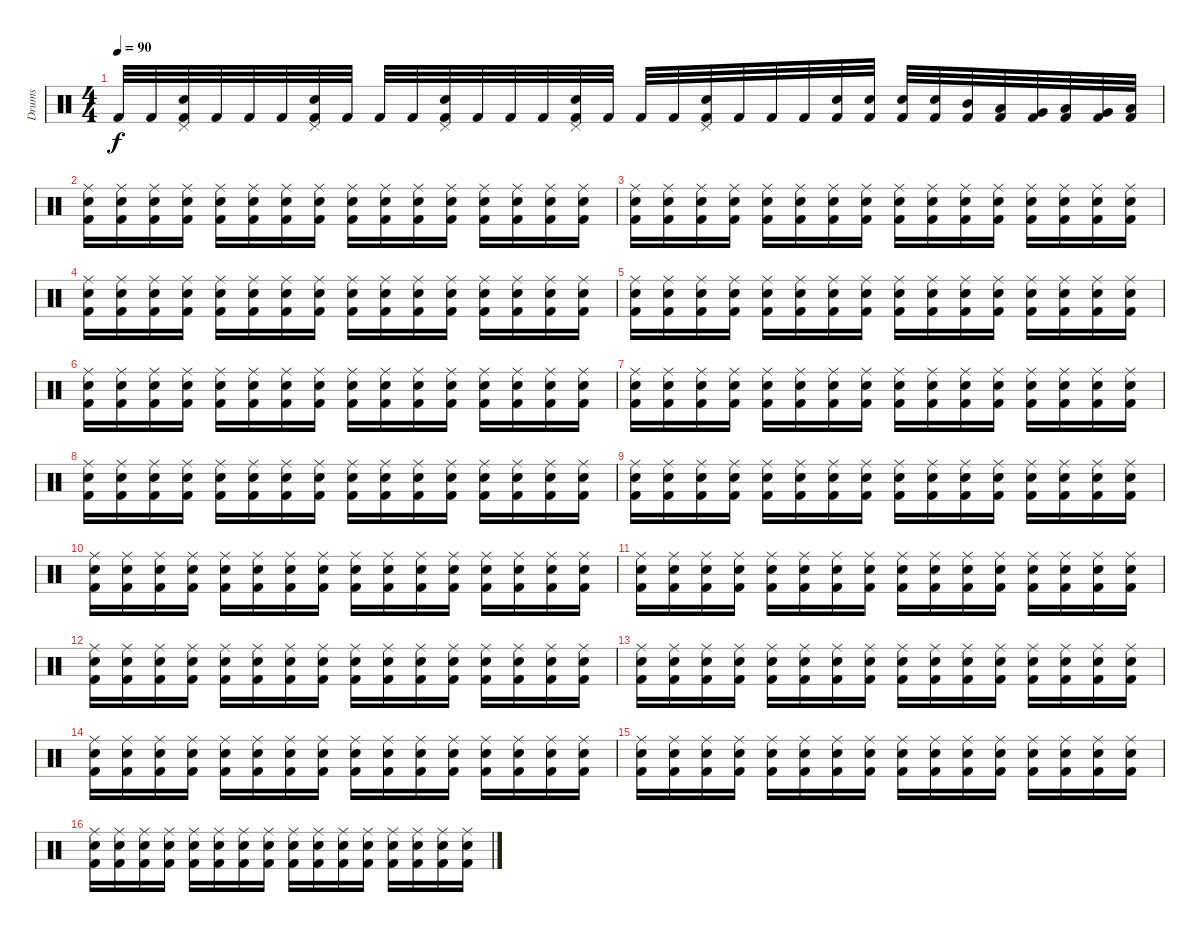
\track ("Drums" "Drums") {instrument percussion}
\staff {score}
\articulation defaults
\ts (4 4)
\tempo 90
\clef neutral
\ks c "Kick (hit) 2".32{dy f} "Kick (hit) 2".32
("Pedal Hi-Hat (hit)" "Snare (hit) 2" "Kick (hit) 2").32 "Kick (hit) 2".32 "Kick (hit) 2".32 "Kick (hit) 2".32 ("Pedal Hi-Hat (hit)" "Snare (hit) 2" "Kick (hit) 2").32 "Kick (hit) 2".32 "Kick (hit) 2".32 "Kick (hit) 2".32 ("Pedal Hi-Hat (hit)" "Snare (hit) 2" "Kick (hit) 2").32 "Kick (hit) 2".32 "Kick (hit) 2".32 "Kick (hit) 2".32 ("Pedal Hi-Hat (hit)" "Snare (hit) 2" "Kick (hit) 2").32 "Kick (hit) 2".32 "Kick (hit) 2".32 "Kick (hit) 2".32 ("Pedal Hi-Hat (hit)" "Snare (hit) 2" "Kick (hit) 2").32 "Kick (hit) 2".32 "Kick (hit) 2".32 "Kick (hit) 2".32 ("Snare (hit) 2" "Kick (hit) 2").32 ("Snare (hit) 2" "Kick (hit) 2").32 ("Snare (hit) 2" "Kick (hit) 2").32 ("Snare (hit) 2" "Kick (hit) 2").32 ("Mid Tom (hit)" "Kick (hit) 2").32 ("Low Tom (hit)" "Kick (hit) 2").32 ("Very Low Tom (hit)" "Kick (hit) 2").32 ("Low Tom (hit)" "Kick (hit) 2").32 ("Very Low Tom (hit)" "Kick (hit) 2").32 ("Low Floor Tom (hit)" "Kick (hit) 2").32 |
("Ride (middle)" "Snare (hit) 2" "Kick (hit) 2").16 ("Ride (middle)" "Snare (hit) 2" "Kick (hit) 2").16 ("Ride (middle)" "Snare (hit) 2" "Kick (hit) 2").16 ("Ride (middle)" "Snare (hit) 2" "Kick (hit) 2").16 ("Ride (middle)" "Snare (hit) 2" "Kick (hit) 2").16 ("Ride (middle)" "Snare (hit) 2" "Kick (hit) 2").16 ("Ride (middle)" "Snare (hit) 2" "Kick (hit) 2").16 ("Ride (middle)" "Snare (hit) 2" "Kick (hit) 2").16 ("Ride (middle)" "Snare (hit) 2" "Kick (hit) 2").16 ("Ride (middle)" "Snare (hit) 2" "Kick (hit) 2").16 ("Ride (middle)" "Snare (hit) 2" "Kick (hit) 2").16 ("Ride (middle)" "Snare (hit) 2" "Kick (hit) 2").16 ("Ride (middle)" "Snare (hit) 2" "Kick (hit) 2").16 ("Ride (middle)" "Snare (hit) 2" "Kick (hit) 2").16 ("Ride (middle)" "Snare (hit) 2" "Kick (hit) 2").16 ("Ride (middle)" "Snare (hit) 2" "Kick (hit) 2").16 |
("Ride (middle)" "Snare (hit) 2" "Kick (hit) 2").16 ("Ride (middle)" "Snare (hit) 2" "Kick (hit) 2").16 ("Ride (middle)" "Snare (hit) 2" "Kick (hit) 2").16 ("Ride (middle)" "Snare (hit) 2" "Kick (hit) 2").16 ("Ride (middle)" "Snare (hit) 2" "Kick (hit) 2").16 ("Ride (middle)" "Snare (hit) 2" "Kick (hit) 2").16 ("Ride (middle)" "Snare (hit) 2" "Kick (hit) 2").16 ("Ride (middle)" "Snare (hit) 2" "Kick (hit) 2").16 ("Ride (middle)" "Snare (hit) 2" "Kick (hit) 2").16 ("Ride (middle)" "Snare (hit) 2" "Kick (hit) 2").16 ("Ride (middle)" "Snare (hit) 2" "Kick (hit) 2").16 ("Ride (middle)" "Snare (hit) 2" "Kick (hit) 2").16 ("Ride (middle)" "Snare (hit) 2" "Kick (hit) 2").16 ("Ride (middle)" "Snare (hit) 2" "Kick (hit) 2").16 ("Ride (middle)" "Snare (hit) 2" "Kick (hit) 2").16 ("Ride (middle)" "Snare (hit) 2" "Kick (hit) 2").16 |
("Ride (middle)" "Snare (hit) 2" "Kick (hit) 2").16 ("Ride (middle)" "Snare (hit) 2" "Kick (hit) 2").16 ("Ride (middle)" "Snare (hit) 2" "Kick (hit) 2").16 ("Ride (middle)" "Snare (hit) 2" "Kick (hit) 2").16 ("Ride (middle)" "Snare (hit) 2" "Kick (hit) 2").16 ("Ride (middle)" "Snare (hit) 2" "Kick (hit) 2").16 ("Ride (middle)" "Snare (hit) 2" "Kick (hit) 2").16 ("Ride (middle)" "Snare (hit) 2" "Kick (hit) 2").16 ("Ride (middle)" "Snare (hit) 2" "Kick (hit) 2").16 ("Ride (middle)" "Snare (hit) 2" "Kick (hit) 2").16 ("Ride (middle)" "Snare (hit) 2" "Kick (hit) 2").16 ("Ride (middle)" "Snare (hit) 2" "Kick (hit) 2").16 ("Ride (middle)" "Snare (hit) 2" "Kick (hit) 2").16 ("Ride (middle)" "Snare (hit) 2" "Kick (hit) 2").16 ("Ride (middle)" "Snare (hit) 2" "Kick (hit) 2").16 ("Ride (middle)" "Snare (hit) 2" "Kick (hit) 2").16 |
("Ride (middle)" "Snare (hit) 2" "Kick (hit) 2").16 ("Ride (middle)" "Snare (hit) 2" "Kick (hit) 2").16 ("Ride (middle)" "Snare (hit) 2" "Kick (hit) 2").16 ("Ride (middle)" "Snare (hit) 2" "Kick (hit) 2").16 ("Ride (middle)" "Snare (hit) 2" "Kick (hit) 2").16 ("Ride (middle)" "Snare (hit) 2" "Kick (hit) 2").16 ("Ride (middle)" "Snare (hit) 2" "Kick (hit) 2").16 ("Ride (middle)" "Snare (hit) 2" "Kick (hit) 2").16 ("Ride (middle)" "Snare (hit) 2" "Kick (hit) 2").16 ("Ride (middle)" "Snare (hit) 2" "Kick (hit) 2").16 ("Ride (middle)" "Snare (hit) 2" "Kick (hit) 2").16 ("Ride (middle)" "Snare (hit) 2" "Kick (hit) 2").16 ("Ride (middle)" "Snare (hit) 2" "Kick (hit) 2").16 ("Ride (middle)" "Snare (hit) 2" "Kick (hit) 2").16 ("Ride (middle)" "Snare (hit) 2" "Kick (hit) 2").16 ("Ride (middle)" "Snare (hit) 2" "Kick (hit) 2").16 |
("Ride (middle)" "Snare (hit) 2" "Kick (hit) 2").16 ("Ride (middle)" "Snare (hit) 2" "Kick (hit) 2").16 ("Ride (middle)" "Snare (hit) 2" "Kick (hit) 2").16 ("Ride (middle)" "Snare (hit) 2" "Kick (hit) 2").16 ("Ride (middle)" "Snare (hit) 2" "Kick (hit) 2").16 ("Ride (middle)" "Snare (hit) 2" "Kick (hit) 2").16 ("Ride (middle)" "Snare (hit) 2" "Kick (hit) 2").16 ("Ride (middle)" "Snare (hit) 2" "Kick (hit) 2").16 ("Ride (middle)" "Snare (hit) 2" "Kick (hit) 2").16 ("Ride (middle)" "Snare (hit) 2" "Kick (hit) 2").16 ("Ride (middle)" "Snare (hit) 2" "Kick (hit) 2").16 ("Ride (middle)" "Snare (hit) 2" "Kick (hit) 2").16 ("Ride (middle)" "Snare (hit) 2" "Kick (hit) 2").16 ("Ride (middle)" "Snare (hit) 2" "Kick (hit) 2").16 ("Ride (middle)" "Snare (hit) 2" "Kick (hit) 2").16 ("Ride (middle)" "Snare (hit) 2" "Kick (hit) 2").16 |
("Ride (middle)" "Snare (hit) 2" "Kick (hit) 2").16 ("Ride (middle)" "Snare (hit) 2" "Kick (hit) 2").16 ("Ride (middle)" "Snare (hit) 2" "Kick (hit) 2").16 ("Ride (middle)" "Snare (hit) 2" "Kick (hit) 2").16 ("Ride (middle)" "Snare (hit) 2" "Kick (hit) 2").16 ("Ride (middle)" "Snare (hit) 2" "Kick (hit) 2").16 ("Ride (middle)" "Snare (hit) 2" "Kick (hit) 2").16 ("Ride (middle)" "Snare (hit) 2" "Kick (hit) 2").16 ("Ride (middle)" "Snare (hit) 2" "Kick (hit) 2").16 ("Ride (middle)" "Snare (hit) 2" "Kick (hit) 2").16 ("Ride (middle)" "Snare (hit) 2" "Kick (hit) 2").16 ("Ride (middle)" "Snare (hit) 2" "Kick (hit) 2").16 ("Ride (middle)" "Snare (hit) 2" "Kick (hit) 2").16 ("Ride (middle)" "Snare (hit) 2" "Kick (hit) 2").16 ("Ride (middle)" "Snare (hit) 2" "Kick (hit) 2").16 ("Ride (middle)" "Snare (hit) 2" "Kick (hit) 2").16 |
("Ride (middle)" "Snare (hit) 2" "Kick (hit) 2").16 ("Ride (middle)" "Snare (hit) 2" "Kick (hit) 2").16 ("Ride (middle)" "Snare (hit) 2" "Kick (hit) 2").16 ("Ride (middle)" "Snare (hit) 2" "Kick (hit) 2").16 ("Ride (middle)" "Snare (hit) 2" "Kick (hit) 2").16 ("Ride (middle)" "Snare (hit) 2" "Kick (hit) 2").16 ("Ride (middle)" "Snare (hit) 2" "Kick (hit) 2").16 ("Ride (middle)" "Snare (hit) 2" "Kick (hit) 2").16 ("Ride (middle)" "Snare (hit) 2" "Kick (hit) 2").16 ("Ride (middle)" "Snare (hit) 2" "Kick (hit) 2").16 ("Ride (middle)" "Snare (hit) 2" "Kick (hit) 2").16 ("Ride (middle)" "Snare (hit) 2" "Kick (hit) 2").16 ("Ride (middle)" "Snare (hit) 2" "Kick (hit) 2").16 ("Ride (middle)" "Snare (hit) 2" "Kick (hit) 2").16 ("Ride (middle)" "Snare (hit) 2" "Kick (hit) 2").16 ("Ride (middle)" "Snare (hit) 2" "Kick (hit) 2").16 |
("Ride (middle)" "Snare (hit) 2" "Kick (hit) 2").16 ("Ride (middle)" "Snare (hit) 2" "Kick (hit) 2").16 ("Ride (middle)" "Snare (hit) 2" "Kick (hit) 2").16 ("Ride (middle)" "Snare (hit) 2" "Kick (hit) 2").16 ("Ride (middle)" "Snare (hit) 2" "Kick (hit) 2").16 ("Ride (middle)" "Snare (hit) 2" "Kick (hit) 2").16 ("Ride (middle)" "Snare (hit) 2" "Kick (hit) 2").16 ("Ride (middle)" "Snare (hit) 2" "Kick (hit) 2").16 ("Ride (middle)" "Snare (hit) 2" "Kick (hit) 2").16 ("Ride (middle)" "Snare (hit) 2" "Kick (hit) 2").16 ("Ride (middle)" "Snare (hit) 2" "Kick (hit) 2").16 ("Ride (middle)" "Snare (hit) 2" "Kick (hit) 2").16 ("Ride (middle)" "Snare (hit) 2" "Kick (hit) 2").16 ("Ride (middle)" "Snare (hit) 2" "Kick (hit) 2").16 ("Ride (middle)" "Snare (hit) 2" "Kick (hit) 2").16 ("Ride (middle)" "Snare (hit) 2" "Kick (hit) 2").16 |
("Ride (middle)" "Snare (hit) 2" "Kick (hit) 2").16 ("Ride (middle)" "Snare (hit) 2" "Kick (hit) 2").16 ("Ride (middle)" "Snare (hit) 2" "Kick (hit) 2").16 ("Ride (middle)" "Snare (hit) 2" "Kick (hit) 2").16 ("Ride (middle)" "Snare (hit) 2" "Kick (hit) 2").16 ("Ride (middle)" "Snare (hit) 2" "Kick (hit) 2").16 ("Ride (middle)" "Snare (hit) 2" "Kick (hit) 2").16 ("Ride (middle)" "Snare (hit) 2" "Kick (hit) 2").16 ("Ride (middle)" "Snare (hit) 2" "Kick (hit) 2").16 ("Ride (middle)" "Snare (hit) 2" "Kick (hit) 2").16 ("Ride (middle)" "Snare (hit) 2" "Kick (hit) 2").16 ("Ride (middle)" "Snare (hit) 2" "Kick (hit) 2").16 ("Ride (middle)" "Snare (hit) 2" "Kick (hit) 2").16 ("Ride (middle)" "Snare (hit) 2" "Kick (hit) 2").16 ("Ride (middle)" "Snare (hit) 2" "Kick (hit) 2").16 ("Ride (middle)" "Snare (hit) 2" "Kick (hit) 2").16 |
("Ride (middle)" "Snare (hit) 2" "Kick (hit) 2").16 ("Ride (middle)" "Snare (hit) 2" "Kick (hit) 2").16 ("Ride (middle)" "Snare (hit) 2" "Kick (hit) 2").16 ("Ride (middle)" "Snare (hit) 2" "Kick (hit) 2").16 ("Ride (middle)" "Snare (hit) 2" "Kick (hit) 2").16 ("Ride (middle)" "Snare (hit) 2" "Kick (hit) 2").16 ("Ride (middle)" "Snare (hit) 2" "Kick (hit) 2").16 ("Ride (middle)" "Snare (hit) 2" "Kick (hit) 2").16 ("Ride (middle)" "Snare (hit) 2" "Kick (hit) 2").16 ("Ride (middle)" "Snare (hit) 2" "Kick (hit) 2").16 ("Ride (middle)" "Snare (hit) 2" "Kick (hit) 2").16 ("Ride (middle)" "Snare (hit) 2" "Kick (hit) 2").16 ("Ride (middle)" "Snare (hit) 2" "Kick (hit) 2").16 ("Ride (middle)" "Snare (hit) 2" "Kick (hit) 2").16 ("Ride (middle)" "Snare (hit) 2" "Kick (hit) 2").16 ("Ride (middle)" "Snare (hit) 2" "Kick (hit) 2").16 |
("Ride (middle)" "Snare (hit) 2" "Kick (hit) 2").16 ("Ride (middle)" "Snare (hit) 2" "Kick (hit) 2").16 ("Ride (middle)" "Snare (hit) 2" "Kick (hit) 2").16 ("Ride (middle)" "Snare (hit) 2" "Kick (hit) 2").16 ("Ride (middle)" "Snare (hit) 2" "Kick (hit) 2").16 ("Ride (middle)" "Snare (hit) 2" "Kick (hit) 2").16 ("Ride (middle)" "Snare (hit) 2" "Kick (hit) 2").16 ("Ride (middle)" "Snare (hit) 2" "Kick (hit) 2").16 ("Ride (middle)" "Snare (hit) 2" "Kick (hit) 2").16 ("Ride (middle)" "Snare (hit) 2" "Kick (hit) 2").16 ("Ride (middle)" "Snare (hit) 2" "Kick (hit) 2").16 ("Ride (middle)" "Snare (hit) 2" "Kick (hit) 2").16 ("Ride (middle)" "Snare (hit) 2" "Kick (hit) 2").16 ("Ride (middle)" "Snare (hit) 2" "Kick (hit) 2").16 ("Ride (middle)" "Snare (hit) 2" "Kick (hit) 2").16 ("Ride (middle)" "Snare (hit) 2" "Kick (hit) 2").16 |
("Ride (middle)" "Snare (hit) 2" "Kick (hit) 2").16 ("Ride (middle)" "Snare (hit) 2" "Kick (hit) 2").16 ("Ride (middle)" "Snare (hit) 2" "Kick (hit) 2").16 ("Ride (middle)" "Snare (hit) 2" "Kick (hit) 2").16 ("Ride (middle)" "Snare (hit) 2" "Kick (hit) 2").16 ("Ride (middle)" "Snare (hit) 2" "Kick (hit) 2").16 ("Ride (middle)" "Snare (hit) 2" "Kick (hit) 2").16 ("Ride (middle)" "Snare (hit) 2" "Kick (hit) 2").16 ("Ride (middle)" "Snare (hit) 2" "Kick (hit) 2").16 ("Ride (middle)" "Snare (hit) 2" "Kick (hit) 2").16 ("Ride (middle)" "Snare (hit) 2" "Kick (hit) 2").16 ("Ride (middle)" "Snare (hit) 2" "Kick (hit) 2").16 ("Ride (middle)" "Snare (hit) 2" "Kick (hit) 2").16 ("Ride (middle)" "Snare (hit) 2" "Kick (hit) 2").16 ("Ride (middle)" "Snare (hit) 2" "Kick (hit) 2").16 ("Ride (middle)" "Snare (hit) 2" "Kick (hit) 2").16 |
("Ride (middle)" "Snare (hit) 2" "Kick (hit) 2").16 ("Ride (middle)" "Snare (hit) 2" "Kick (hit) 2").16 ("Ride (middle)" "Snare (hit) 2" "Kick (hit) 2").16 ("Ride (middle)" "Snare (hit) 2" "Kick (hit) 2").16 ("Ride (middle)" "Snare (hit) 2" "Kick (hit) 2").16 ("Ride (middle)" "Snare (hit) 2" "Kick (hit) 2").16 ("Ride (middle)" "Snare (hit) 2" "Kick (hit) 2").16 ("Ride (middle)" "Snare (hit) 2" "Kick (hit) 2").16 ("Ride (middle)" "Snare (hit) 2" "Kick (hit) 2").16 ("Ride (middle)" "Snare (hit) 2" "Kick (hit) 2").16 ("Ride (middle)" "Snare (hit) 2" "Kick (hit) 2").16 ("Ride (middle)" "Snare (hit) 2" "Kick (hit) 2").16 ("Ride (middle)" "Snare (hit) 2" "Kick (hit) 2").16 ("Ride (middle)" "Snare (hit) 2" "Kick (hit) 2").16 ("Ride (middle)" "Snare (hit) 2" "Kick (hit) 2").16 ("Ride (middle)" "Snare (hit) 2" "Kick (hit) 2").16 |
("Ride (middle)" "Snare (hit) 2" "Kick (hit) 2").16 ("Ride (middle)" "Snare (hit) 2" "Kick (hit) 2").16 ("Ride (middle)" "Snare (hit) 2" "Kick (hit) 2").16 ("Ride (middle)" "Snare (hit) 2" "Kick (hit) 2").16 ("Ride (middle)" "Snare (hit) 2" "Kick (hit) 2").16 ("Ride (middle)" "Snare (hit) 2" "Kick (hit) 2").16 ("Ride (middle)" "Snare (hit) 2" "Kick (hit) 2").16 ("Ride (middle)" "Snare (hit) 2" "Kick (hit) 2").16 ("Ride (middle)" "Snare (hit) 2" "Kick (hit) 2").16 ("Ride (middle)" "Snare (hit) 2" "Kick (hit) 2").16 ("Ride (middle)" "Snare (hit) 2" "Kick (hit) 2").16 ("Ride (middle)" "Snare (hit) 2" "Kick (hit) 2").16 ("Ride (middle)" "Snare (hit) 2" "Kick (hit) 2").16 ("Ride (middle)" "Snare (hit) 2" "Kick (hit) 2").16 ("Ride (middle)" "Snare (hit) 2" "Kick (hit) 2").16 ("Ride (middle)" "Snare (hit) 2" "Kick (hit) 2").16 |
("Ride (middle)" "Snare (hit) 2" "Kick (hit) 2").16 ("Ride (middle)" "Snare (hit) 2" "Kick (hit) 2").16 ("Ride (middle)" "Snare (hit) 2" "Kick (hit) 2").16 ("Ride (middle)" "Snare (hit) 2" "Kick (hit) 2").16 ("Ride (middle)" "Snare (hit) 2" "Kick (hit) 2").16 ("Ride (middle)" "Snare (hit) 2" "Kick (hit) 2").16 ("Ride (middle)" "Snare (hit) 2" "Kick (hit) 2").16 ("Ride (middle)" "Snare (hit) 2" "Kick (hit) 2").16 ("Ride (middle)" "Snare (hit) 2" "Kick (hit) 2").16 ("Ride (middle)" "Snare (hit) 2" "Kick (hit) 2").16 ("Ride (middle)" "Snare (hit) 2" "Kick (hit) 2").16 ("Ride (middle)" "Snare (hit) 2" "Kick (hit) 2").16 ("Ride (middle)" "Snare (hit) 2" "Kick (hit) 2").16 ("Ride (middle)" "Snare (hit) 2" "Kick (hit) 2").16 ("Ride (middle)" "Snare (hit) 2" "Kick (hit) 2").16 ("Ride (middle)" "Snare (hit) 2" "Kick (hit) 2").16
